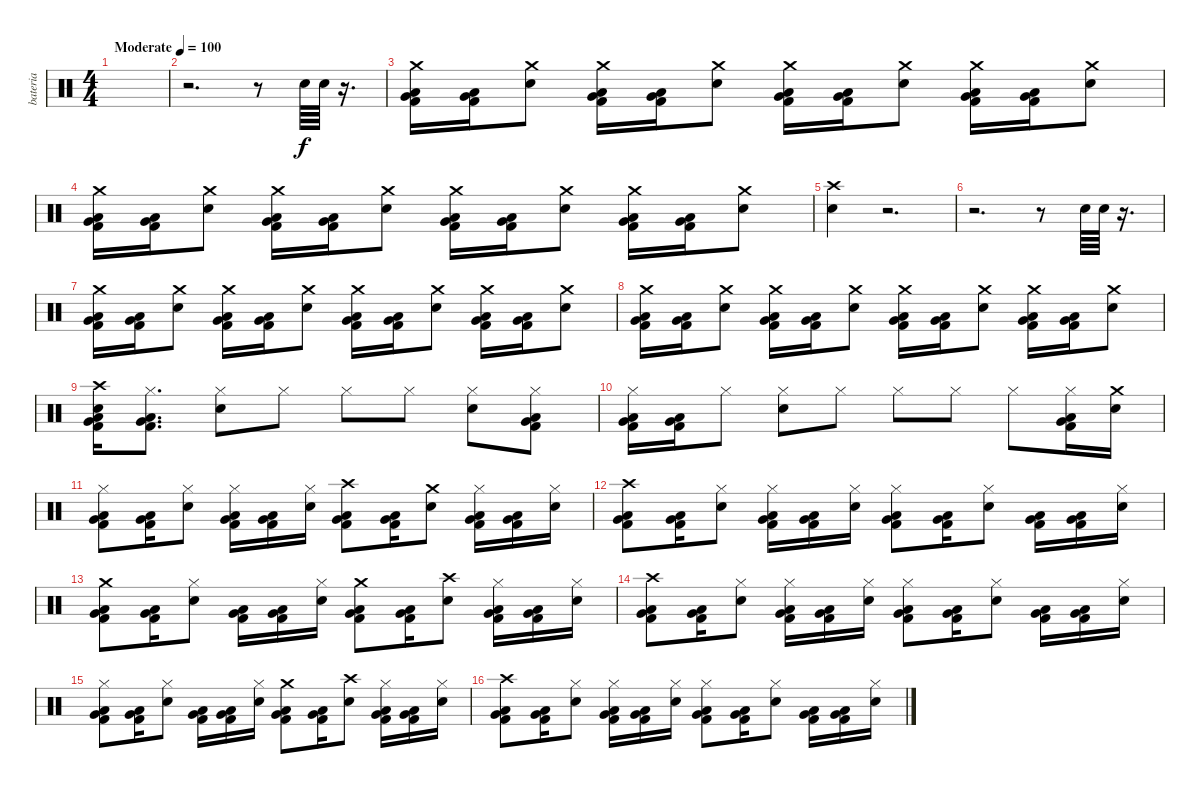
\track ("bateria" "bateria") {instrument percussion}
\staff {score}
\articulation defaults
\ts (4 4)
\tempo (100 "Moderate")
\clef neutral
\ks c
|
r.2{d} r.8 "Electric Snare (hit)".64 "Electric Snare (hit)".64 r.16{d} |
("Crash medium (hit)" "Kick (hit) 2" "Low Floor Tom (hit)" "Very Low Tom (hit)").16 ("Kick (hit) 2" "Low Floor Tom (hit)" "Very Low Tom (hit)").16 ("Crash medium (hit)" "Electric Snare (hit)").8 ("Crash medium (hit)" "Kick (hit) 2" "Low Floor Tom (hit)" "Very Low Tom (hit)").16 ("Kick (hit) 2" "Low Floor Tom (hit)" "Very Low Tom (hit)").16 ("Crash medium (hit)" "Electric Snare (hit)").8 ("Crash medium (hit)" "Kick (hit) 2" "Low Floor Tom (hit)" "Very Low Tom (hit)").16 ("Kick (hit) 2" "Low Floor Tom (hit)" "Very Low Tom (hit)").16 ("Crash medium (hit)" "Electric Snare (hit)").8 ("Crash medium (hit)" "Kick (hit) 2" "Low Floor Tom (hit)" "Very Low Tom (hit)").16 ("Kick (hit) 2" "Low Floor Tom (hit)" "Very Low Tom (hit)").16 ("Crash medium (hit)" "Electric Snare (hit)").8 |
("Crash medium (hit)" "Kick (hit) 2" "Low Floor Tom (hit)" "Very Low Tom (hit)").16 ("Kick (hit) 2" "Low Floor Tom (hit)" "Very Low Tom (hit)").16 ("Crash medium (hit)" "Electric Snare (hit)").8 ("Crash medium (hit)" "Kick (hit) 2" "Low Floor Tom (hit)" "Very Low Tom (hit)").16 ("Kick (hit) 2" "Low Floor Tom (hit)" "Very Low Tom (hit)").16 ("Crash medium (hit)" "Electric Snare (hit)").8 ("Crash medium (hit)" "Kick (hit) 2" "Low Floor Tom (hit)" "Very Low Tom (hit)").16 ("Kick (hit) 2" "Low Floor Tom (hit)" "Very Low Tom (hit)").16 ("Crash medium (hit)" "Electric Snare (hit)").8 ("Crash medium (hit)" "Kick (hit) 2" "Low Floor Tom (hit)" "Very Low Tom (hit)").16 ("Kick (hit) 2" "Low Floor Tom (hit)" "Very Low Tom (hit)").16 ("Crash medium (hit)" "Electric Snare (hit)").8 |
("Crash high (hit)" "Electric Snare (hit)").4 r.2{d} |
r.2{d} r.8 "Electric Snare (hit)".64 "Electric Snare (hit)".64 r.16{d} |
("Crash medium (hit)" "Kick (hit) 2" "Low Floor Tom (hit)" "Very Low Tom (hit)").16 ("Kick (hit) 2" "Low Floor Tom (hit)" "Very Low Tom (hit)").16 ("Crash medium (hit)" "Electric Snare (hit)").8 ("Crash medium (hit)" "Kick (hit) 2" "Low Floor Tom (hit)" "Very Low Tom (hit)").16 ("Kick (hit) 2" "Low Floor Tom (hit)" "Very Low Tom (hit)").16 ("Crash medium (hit)" "Electric Snare (hit)").8 ("Crash medium (hit)" "Kick (hit) 2" "Low Floor Tom (hit)" "Very Low Tom (hit)").16 ("Kick (hit) 2" "Low Floor Tom (hit)" "Very Low Tom (hit)").16 ("Crash medium (hit)" "Electric Snare (hit)").8 ("Crash medium (hit)" "Kick (hit) 2" "Low Floor Tom (hit)" "Very Low Tom (hit)").16 ("Kick (hit) 2" "Low Floor Tom (hit)" "Very Low Tom (hit)").16 ("Crash medium (hit)" "Electric Snare (hit)").8 |
("Crash medium (hit)" "Kick (hit) 2" "Low Floor Tom (hit)" "Very Low Tom (hit)").16 ("Kick (hit) 2" "Low Floor Tom (hit)" "Very Low Tom (hit)").16 ("Crash medium (hit)" "Electric Snare (hit)").8 ("Crash medium (hit)" "Kick (hit) 2" "Low Floor Tom (hit)" "Very Low Tom (hit)").16 ("Kick (hit) 2" "Low Floor Tom (hit)" "Very Low Tom (hit)").16 ("Crash medium (hit)" "Electric Snare (hit)").8 ("Crash medium (hit)" "Kick (hit) 2" "Low Floor Tom (hit)" "Very Low Tom (hit)").16 ("Kick (hit) 2" "Low Floor Tom (hit)" "Very Low Tom (hit)").16 ("Crash medium (hit)" "Electric Snare (hit)").8 ("Crash medium (hit)" "Kick (hit) 2" "Low Floor Tom (hit)" "Very Low Tom (hit)").16 ("Kick (hit) 2" "Low Floor Tom (hit)" "Very Low Tom (hit)").16 ("Crash medium (hit)" "Electric Snare (hit)").8 |
("Crash high (hit)" "Electric Snare (hit)" "Low Floor Tom (hit)" "Kick (hit) 2" "Very Low Tom (hit)").16 ("Hi-Hat (closed)" "Low Floor Tom (hit)" "Kick (hit) 2" "Very Low Tom (hit)").8{d} ("Hi-Hat (closed)" "Electric Snare (hit)").8 "Hi-Hat (closed)".8 "Hi-Hat (closed)".8 "Hi-Hat (closed)".8 ("Hi-Hat (closed)" "Electric Snare (hit)").8 ("Hi-Hat (closed)" "Kick (hit) 2" "Low Floor Tom (hit)" "Very Low Tom (hit)").8 |
("Hi-Hat (closed)" "Kick (hit) 2" "Low Floor Tom (hit)" "Very Low Tom (hit)").16 ("Kick (hit) 2" "Low Floor Tom (hit)" "Very Low Tom (hit)").16 "Hi-Hat (closed)".8 ("Hi-Hat (closed)" "Electric Snare (hit)").8 "Hi-Hat (closed)".8 "Hi-Hat (closed)".8 "Hi-Hat (closed)".8 "Hi-Hat (closed)".8 ("Hi-Hat (closed)" "Kick (hit) 2" "Low Floor Tom (hit)" "Very Low Tom (hit)").16 ("Crash medium (hit)" "Electric Snare (hit)").16 |
("Hi-Hat (closed)" "Kick (hit) 2" "Low Floor Tom (hit)" "Very Low Tom (hit)").8 ("Kick (hit) 2" "Low Floor Tom (hit)" "Very Low Tom (hit)").16 ("Hi-Hat (closed)" "Electric Snare (hit)").8 ("Hi-Hat (closed)" "Kick (hit) 2" "Low Floor Tom (hit)" "Very Low Tom (hit)").16 ("Kick (hit) 2" "Low Floor Tom (hit)" "Very Low Tom (hit)").16 ("Hi-Hat (closed)" "Electric Snare (hit)").16 ("Crash high (hit)" "Kick (hit) 2" "Low Floor Tom (hit)" "Very Low Tom (hit)").8 ("Kick (hit) 2" "Low Floor Tom (hit)" "Very Low Tom (hit)").16 ("Crash medium (hit)" "Electric Snare (hit)").8 ("Hi-Hat (closed)" "Kick (hit) 2" "Low Floor Tom (hit)" "Very Low Tom (hit)").16 ("Kick (hit) 2" "Low Floor Tom (hit)" "Very Low Tom (hit)").16 ("Hi-Hat (closed)" "Electric Snare (hit)").16 |
("Crash high (hit)" "Kick (hit) 2" "Low Floor Tom (hit)" "Very Low Tom (hit)").8 ("Kick (hit) 2" "Low Floor Tom (hit)" "Very Low Tom (hit)").16 ("Hi-Hat (closed)" "Electric Snare (hit)").8 ("Hi-Hat (closed)" "Kick (hit) 2" "Low Floor Tom (hit)" "Very Low Tom (hit)").16 ("Kick (hit) 2" "Low Floor Tom (hit)" "Very Low Tom (hit)").16 ("Hi-Hat (closed)" "Electric Snare (hit)").16 ("Hi-Hat (closed)" "Kick (hit) 2" "Low Floor Tom (hit)" "Very Low Tom (hit)").8 ("Kick (hit) 2" "Low Floor Tom (hit)" "Very Low Tom (hit)").16 ("Hi-Hat (closed)" "Electric Snare (hit)").8 ("Kick (hit) 2" "Low Floor Tom (hit)" "Very Low Tom (hit)").16 ("Kick (hit) 2" "Low Floor Tom (hit)" "Very Low Tom (hit)").16 ("Hi-Hat (closed)" "Electric Snare (hit)").16 |
("Crash medium (hit)" "Kick (hit) 2" "Low Floor Tom (hit)" "Very Low Tom (hit)").8 ("Kick (hit) 2" "Low Floor Tom (hit)" "Very Low Tom (hit)").16 ("Hi-Hat (closed)" "Electric Snare (hit)").8 ("Kick (hit) 2" "Low Floor Tom (hit)" "Very Low Tom (hit)").16 ("Kick (hit) 2" "Low Floor Tom (hit)" "Very Low Tom (hit)").16 ("Hi-Hat (closed)" "Electric Snare (hit)").16 ("Crash medium (hit)" "Kick (hit) 2" "Low Floor Tom (hit)" "Very Low Tom (hit)").8 ("Kick (hit) 2" "Low Floor Tom (hit)" "Very Low Tom (hit)").16 ("Crash high (hit)" "Electric Snare (hit)").8 ("Hi-Hat (closed)" "Kick (hit) 2" "Low Floor Tom (hit)" "Very Low Tom (hit)").16 ("Kick (hit) 2" "Low Floor Tom (hit)" "Very Low Tom (hit)").16 ("Hi-Hat (closed)" "Electric Snare (hit)").16 |
("Crash high (hit)" "Kick (hit) 2" "Low Floor Tom (hit)" "Very Low Tom (hit)").8 ("Kick (hit) 2" "Low Floor Tom (hit)" "Very Low Tom (hit)").16 ("Hi-Hat (closed)" "Electric Snare (hit)").8 ("Hi-Hat (closed)" "Kick (hit) 2" "Low Floor Tom (hit)" "Very Low Tom (hit)").16 ("Kick (hit) 2" "Low Floor Tom (hit)" "Very Low Tom (hit)").16 ("Hi-Hat (closed)" "Electric Snare (hit)").16 ("Hi-Hat (closed)" "Kick (hit) 2" "Low Floor Tom (hit)" "Very Low Tom (hit)").8 ("Kick (hit) 2" "Low Floor Tom (hit)" "Very Low Tom (hit)").16 ("Hi-Hat (closed)" "Electric Snare (hit)").8 ("Kick (hit) 2" "Low Floor Tom (hit)" "Very Low Tom (hit)").16 ("Kick (hit) 2" "Low Floor Tom (hit)" "Very Low Tom (hit)").16 ("Hi-Hat (closed)" "Electric Snare (hit)").16 |
("Hi-Hat (closed)" "Kick (hit) 2" "Low Floor Tom (hit)" "Very Low Tom (hit)").8 ("Kick (hit) 2" "Low Floor Tom (hit)" "Very Low Tom (hit)").16 ("Hi-Hat (closed)" "Electric Snare (hit)").8 ("Kick (hit) 2" "Low Floor Tom (hit)" "Very Low Tom (hit)").16 ("Kick (hit) 2" "Low Floor Tom (hit)" "Very Low Tom (hit)").16 ("Hi-Hat (closed)" "Electric Snare (hit)").16 ("Crash medium (hit)" "Kick (hit) 2" "Low Floor Tom (hit)" "Very Low Tom (hit)").8 ("Kick (hit) 2" "Low Floor Tom (hit)" "Very Low Tom (hit)").16 ("Crash high (hit)" "Electric Snare (hit)").8 ("Hi-Hat (closed)" "Kick (hit) 2" "Low Floor Tom (hit)" "Very Low Tom (hit)").16 ("Kick (hit) 2" "Low Floor Tom (hit)" "Very Low Tom (hit)").16 ("Hi-Hat (closed)" "Electric Snare (hit)").16 |
("Crash high (hit)" "Kick (hit) 2" "Low Floor Tom (hit)" "Very Low Tom (hit)").8 ("Kick (hit) 2" "Low Floor Tom (hit)" "Very Low Tom (hit)").16 ("Hi-Hat (closed)" "Electric Snare (hit)").8 ("Hi-Hat (closed)" "Kick (hit) 2" "Low Floor Tom (hit)" "Very Low Tom (hit)").16 ("Kick (hit) 2" "Low Floor Tom (hit)" "Very Low Tom (hit)").16 ("Hi-Hat (closed)" "Electric Snare (hit)").16 ("Hi-Hat (closed)" "Kick (hit) 2" "Low Floor Tom (hit)" "Very Low Tom (hit)").8 ("Kick (hit) 2" "Low Floor Tom (hit)" "Very Low Tom (hit)").16 ("Hi-Hat (closed)" "Electric Snare (hit)").8 ("Kick (hit) 2" "Low Floor Tom (hit)" "Very Low Tom (hit)").16 ("Kick (hit) 2" "Low Floor Tom (hit)" "Very Low Tom (hit)").16 ("Hi-Hat (closed)" "Electric Snare (hit)").16
